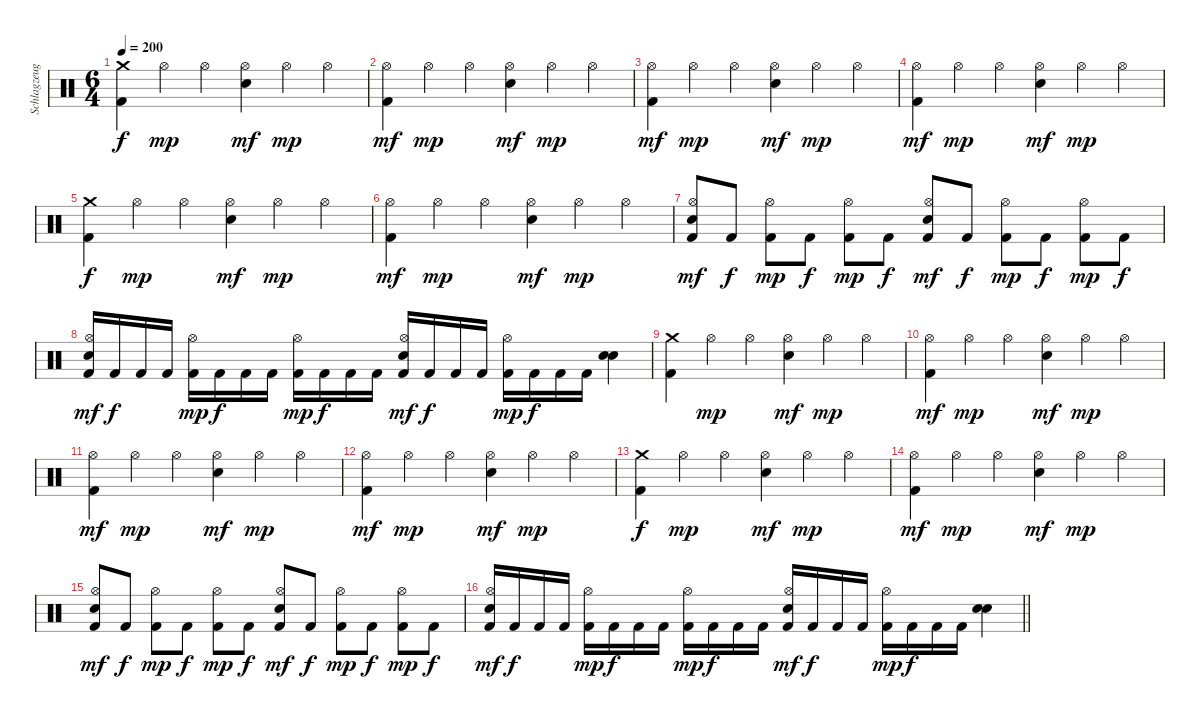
\track ("Schlagzeug" "Schlagzeug") {instrument percussion}
\staff {score}
\articulation defaults
\ts (6 4)
\tempo 200
\clef neutral
\ks c
("Crash medium (hit)" "Kick (hit) 2").4{dy f} "Hi-Hat (open)".4{dy mp} "Hi-Hat (open)".4 ("Hi-Hat (open)" "Electric Snare (hit)").4{dy mf} "Hi-Hat (open)".4{dy mp} "Hi-Hat (open)".4 |
("Hi-Hat (open)" "Kick (hit) 2").4{dy mf} "Hi-Hat (open)".4{dy mp} "Hi-Hat (open)".4 ("Hi-Hat (open)" "Electric Snare (hit)").4{dy mf} "Hi-Hat (open)".4{dy mp} "Hi-Hat (open)".4 |
("Hi-Hat (open)" "Kick (hit) 2").4{dy mf} "Hi-Hat (open)".4{dy mp} "Hi-Hat (open)".4 ("Hi-Hat (open)" "Electric Snare (hit)").4{dy mf} "Hi-Hat (open)".4{dy mp} "Hi-Hat (open)".4 |
("Hi-Hat (open)" "Kick (hit) 2").4{dy mf} "Hi-Hat (open)".4{dy mp} "Hi-Hat (open)".4 ("Hi-Hat (open)" "Electric Snare (hit)").4{dy mf} "Hi-Hat (open)".4{dy mp} "Hi-Hat (open)".4 |
("Crash medium (hit)" "Kick (hit) 2").4{dy f} "Hi-Hat (open)".4{dy mp} "Hi-Hat (open)".4 ("Hi-Hat (open)" "Electric Snare (hit)").4{dy mf} "Hi-Hat (open)".4{dy mp} "Hi-Hat (open)".4 |
("Hi-Hat (open)" "Kick (hit) 2").4{dy mf} "Hi-Hat (open)".4{dy mp} "Hi-Hat (open)".4 ("Hi-Hat (open)" "Electric Snare (hit)").4{dy mf} "Hi-Hat (open)".4{dy mp} "Hi-Hat (open)".4 |
("Hi-Hat (open)" "Electric Snare (hit)" "Kick (hit) 2").8{dy mf} "Kick (hit) 2".8{dy f} ("Hi-Hat (open)" "Kick (hit) 2").8{dy mp} "Kick (hit) 2".8{dy f} ("Hi-Hat (open)" "Kick (hit) 2").8{dy mp} "Kick (hit) 2".8{dy f} ("Hi-Hat (open)" "Electric Snare (hit)" "Kick (hit) 2").8{dy mf} "Kick (hit) 2".8{dy f} ("Hi-Hat (open)" "Kick (hit) 2").8{dy mp} "Kick (hit) 2".8{dy f} ("Hi-Hat (open)" "Kick (hit) 2").8{dy mp} "Kick (hit) 2".8{dy f} |
("Hi-Hat (open)" "Electric Snare (hit)" "Kick (hit) 2").16{dy mf} "Kick (hit) 2".16{dy f} "Kick (hit) 2".16 "Kick (hit) 2".16 ("Hi-Hat (open)" "Kick (hit) 2").16{dy mp} "Kick (hit) 2".16{dy f} "Kick (hit) 2".16 "Kick (hit) 2".16 ("Hi-Hat (open)" "Kick (hit) 2").16{dy mp} "Kick (hit) 2".16{dy f} "Kick (hit) 2".16 "Kick (hit) 2".16 ("Hi-Hat (open)" "Electric Snare (hit)" "Kick (hit) 2").16{dy mf} "Kick (hit) 2".16{dy f} "Kick (hit) 2".16 "Kick (hit) 2".16 ("Hi-Hat (open)" "Kick (hit) 2").16{dy mp} "Kick (hit) 2".16{dy f} "Kick (hit) 2".16 "Kick (hit) 2".16 ("Electric Snare (hit)" "Electric Snare (hit)").4{bd 240} |
("Crash medium (hit)" "Kick (hit) 2").4 "Hi-Hat (open)".4{dy mp} "Hi-Hat (open)".4 ("Hi-Hat (open)" "Electric Snare (hit)").4{dy mf} "Hi-Hat (open)".4{dy mp} "Hi-Hat (open)".4 |
("Hi-Hat (open)" "Kick (hit) 2").4{dy mf} "Hi-Hat (open)".4{dy mp} "Hi-Hat (open)".4 ("Hi-Hat (open)" "Electric Snare (hit)").4{dy mf} "Hi-Hat (open)".4{dy mp} "Hi-Hat (open)".4 |
("Hi-Hat (open)" "Kick (hit) 2").4{dy mf} "Hi-Hat (open)".4{dy mp} "Hi-Hat (open)".4 ("Hi-Hat (open)" "Electric Snare (hit)").4{dy mf} "Hi-Hat (open)".4{dy mp} "Hi-Hat (open)".4 |
("Hi-Hat (open)" "Kick (hit) 2").4{dy mf} "Hi-Hat (open)".4{dy mp} "Hi-Hat (open)".4 ("Hi-Hat (open)" "Electric Snare (hit)").4{dy mf} "Hi-Hat (open)".4{dy mp} "Hi-Hat (open)".4 |
("Crash medium (hit)" "Kick (hit) 2").4{dy f} "Hi-Hat (open)".4{dy mp} "Hi-Hat (open)".4 ("Hi-Hat (open)" "Electric Snare (hit)").4{dy mf} "Hi-Hat (open)".4{dy mp} "Hi-Hat (open)".4 |
("Hi-Hat (open)" "Kick (hit) 2").4{dy mf} "Hi-Hat (open)".4{dy mp} "Hi-Hat (open)".4 ("Hi-Hat (open)" "Electric Snare (hit)").4{dy mf} "Hi-Hat (open)".4{dy mp} "Hi-Hat (open)".4 |
("Hi-Hat (open)" "Electric Snare (hit)" "Kick (hit) 2").8{dy mf} "Kick (hit) 2".8{dy f} ("Hi-Hat (open)" "Kick (hit) 2").8{dy mp} "Kick (hit) 2".8{dy f} ("Hi-Hat (open)" "Kick (hit) 2").8{dy mp} "Kick (hit) 2".8{dy f} ("Hi-Hat (open)" "Electric Snare (hit)" "Kick (hit) 2").8{dy mf} "Kick (hit) 2".8{dy f} ("Hi-Hat (open)" "Kick (hit) 2").8{dy mp} "Kick (hit) 2".8{dy f} ("Hi-Hat (open)" "Kick (hit) 2").8{dy mp} "Kick (hit) 2".8{dy f} |
\barLineRight lightlight
("Hi-Hat (open)" "Electric Snare (hit)" "Kick (hit) 2").16{dy mf} "Kick (hit) 2".16{dy f} "Kick (hit) 2".16 "Kick (hit) 2".16 ("Hi-Hat (open)" "Kick (hit) 2").16{dy mp} "Kick (hit) 2".16{dy f} "Kick (hit) 2".16 "Kick (hit) 2".16 ("Hi-Hat (open)" "Kick (hit) 2").16{dy mp} "Kick (hit) 2".16{dy f} "Kick (hit) 2".16 "Kick (hit) 2".16 ("Hi-Hat (open)" "Electric Snare (hit)" "Kick (hit) 2").16{dy mf} "Kick (hit) 2".16{dy f} "Kick (hit) 2".16 "Kick (hit) 2".16 ("Hi-Hat (open)" "Kick (hit) 2").16{dy mp} "Kick (hit) 2".16{dy f} "Kick (hit) 2".16 "Kick (hit) 2".16 ("Electric Snare (hit)" "Electric Snare (hit)").4{bd 240}
